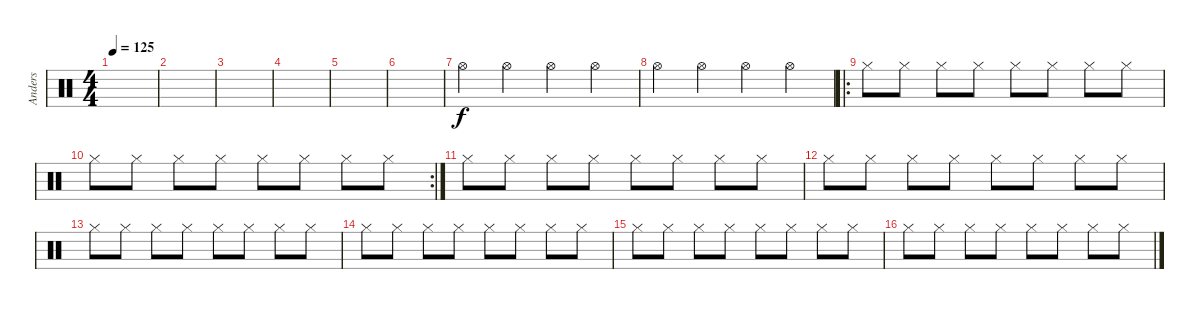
\track ("Anders" "Anders") {instrument percussion}
\staff {score}
\articulation defaults
\ts (4 4)
\tempo 125
\clef neutral
\ks c
|
|
|
|
|
|
"Hi-Hat (open)".4 "Hi-Hat (open)".4 "Hi-Hat (open)".4 "Hi-Hat (open)".4 |
"Hi-Hat (open)".4 "Hi-Hat (open)".4 "Hi-Hat (open)".4 "Hi-Hat (open)".4 |
\ro "Hi-Hat (closed)".8 "Hi-Hat (closed)".8 "Hi-Hat (closed)".8 "Hi-Hat (closed)".8 "Hi-Hat (closed)".8 "Hi-Hat (closed)".8 "Hi-Hat (closed)".8 "Hi-Hat (closed)".8
|
\rc 2 "Hi-Hat (closed)".8 "Hi-Hat (closed)".8 "Hi-Hat (closed)".8 "Hi-Hat (closed)".8 "Hi-Hat (closed)".8 "Hi-Hat (closed)".8 "Hi-Hat (closed)".8 "Hi-Hat (closed)".8
|
"Hi-Hat (closed)".8 "Hi-Hat (closed)".8 "Hi-Hat (closed)".8 "Hi-Hat (closed)".8 "Hi-Hat (closed)".8 "Hi-Hat (closed)".8 "Hi-Hat (closed)".8 "Hi-Hat (closed)".8 |
"Hi-Hat (closed)".8 "Hi-Hat (closed)".8 "Hi-Hat (closed)".8 "Hi-Hat (closed)".8 "Hi-Hat (closed)".8 "Hi-Hat (closed)".8 "Hi-Hat (closed)".8 "Hi-Hat (closed)".8 |
"Hi-Hat (closed)".8 "Hi-Hat (closed)".8 "Hi-Hat (closed)".8 "Hi-Hat (closed)".8 "Hi-Hat (closed)".8 "Hi-Hat (closed)".8 "Hi-Hat (closed)".8 "Hi-Hat (closed)".8 |
"Hi-Hat (closed)".8 "Hi-Hat (closed)".8 "Hi-Hat (closed)".8 "Hi-Hat (closed)".8 "Hi-Hat (closed)".8 "Hi-Hat (closed)".8 "Hi-Hat (closed)".8 "Hi-Hat (closed)".8 |
"Hi-Hat (closed)".8 "Hi-Hat (closed)".8 "Hi-Hat (closed)".8 "Hi-Hat (closed)".8 "Hi-Hat (closed)".8 "Hi-Hat (closed)".8 "Hi-Hat (closed)".8 "Hi-Hat (closed)".8 |
"Hi-Hat (closed)".8 "Hi-Hat (closed)".8 "Hi-Hat (closed)".8 "Hi-Hat (closed)".8 "Hi-Hat (closed)".8 "Hi-Hat (closed)".8 "Hi-Hat (closed)".8 "Hi-Hat (closed)".8
